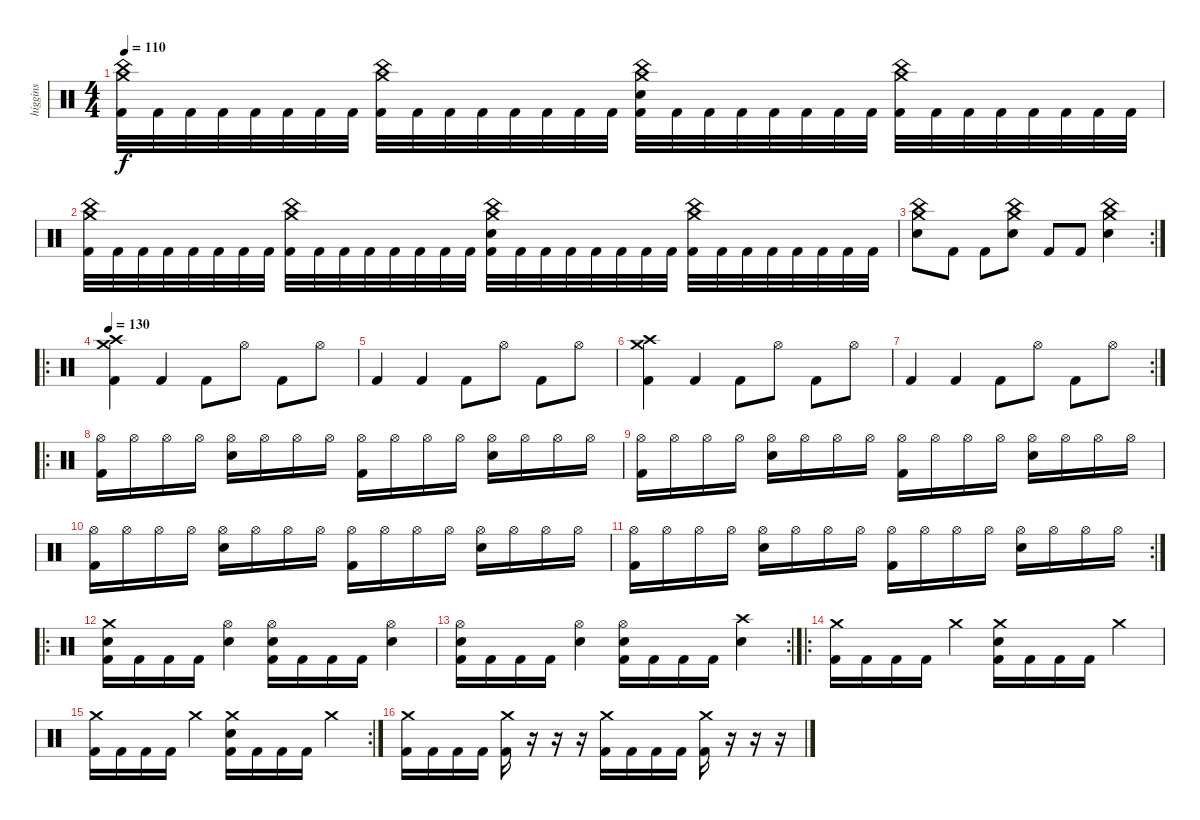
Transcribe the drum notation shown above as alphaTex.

\track ("higgins" "higgins") {instrument percussion}
\staff {score}
\articulation defaults
\ts (4 4)
\tempo 110
\clef neutral
\ks c
("Crash medium (hit)" "China (hit)" "Kick (hit) 2").32{dy f} "Kick (hit) 2".32 "Kick (hit) 2".32 "Kick (hit) 2".32 "Kick (hit) 2".32 "Kick (hit) 2".32 "Kick (hit) 2".32 "Kick (hit) 2".32 ("Crash medium (hit)" "China (hit)" "Kick (hit) 2").32 "Kick (hit) 2".32 "Kick (hit) 2".32 "Kick (hit) 2".32 "Kick (hit) 2".32 "Kick (hit) 2".32 "Kick (hit) 2".32 "Kick (hit) 2".32 ("China (hit)" "Crash medium (hit)" "Snare (hit) 2" "Kick (hit) 2").32 "Kick (hit) 2".32 "Kick (hit) 2".32 "Kick (hit) 2".32 "Kick (hit) 2".32 "Kick (hit) 2".32 "Kick (hit) 2".32 "Kick (hit) 2".32 ("Crash medium (hit)" "China (hit)" "Kick (hit) 2").32 "Kick (hit) 2".32 "Kick (hit) 2".32 "Kick (hit) 2".32 "Kick (hit) 2".32 "Kick (hit) 2".32 "Kick (hit) 2".32 "Kick (hit) 2".32 |
("Crash medium (hit)" "China (hit)" "Kick (hit) 2").32 "Kick (hit) 2".32 "Kick (hit) 2".32 "Kick (hit) 2".32 "Kick (hit) 2".32 "Kick (hit) 2".32 "Kick (hit) 2".32 "Kick (hit) 2".32 ("Crash medium (hit)" "China (hit)" "Kick (hit) 2").32 "Kick (hit) 2".32 "Kick (hit) 2".32 "Kick (hit) 2".32 "Kick (hit) 2".32 "Kick (hit) 2".32 "Kick (hit) 2".32 "Kick (hit) 2".32 ("China (hit)" "Crash medium (hit)" "Snare (hit) 2" "Kick (hit) 2").32 "Kick (hit) 2".32 "Kick (hit) 2".32 "Kick (hit) 2".32 "Kick (hit) 2".32 "Kick (hit) 2".32 "Kick (hit) 2".32 "Kick (hit) 2".32 ("Crash medium (hit)" "China (hit)" "Kick (hit) 2").32 "Kick (hit) 2".32 "Kick (hit) 2".32 "Kick (hit) 2".32 "Kick (hit) 2".32 "Kick (hit) 2".32 "Kick (hit) 2".32 "Kick (hit) 2".32 |
\rc 2
("Crash medium (hit)" "China (hit)" "Snare (hit) 2").8 "Kick (hit) 2".8 "Kick (hit) 2".8 ("Crash medium (hit)" "China (hit)" "Snare (hit) 2").8 "Kick (hit) 2".8 "Kick (hit) 2".8 ("Crash medium (hit)" "China (hit)" "Snare (hit) 2").4 |
\ro
\tempo 130
("Crash high (hit)" "Crash medium (hit)" "Kick (hit) 2").4 "Kick (hit) 2".4 "Kick (hit) 2".8 "Hi-Hat (open)".8 "Kick (hit) 2".8 "Hi-Hat (open)".8 |
"Kick (hit) 2".4 "Kick (hit) 2".4 "Kick (hit) 2".8 "Hi-Hat (open)".8 "Kick (hit) 2".8 "Hi-Hat (open)".8 |
("Crash high (hit)" "Crash medium (hit)" "Kick (hit) 2").4 "Kick (hit) 2".4 "Kick (hit) 2".8 "Hi-Hat (open)".8 "Kick (hit) 2".8 "Hi-Hat (open)".8 |
\rc 2 "Kick (hit) 2".4 "Kick (hit) 2".4 "Kick (hit) 2".8 "Hi-Hat (open)".8 "Kick (hit) 2".8 "Hi-Hat (open)".8
|
\ro
("Hi-Hat (open)" "Kick (hit) 2").16 "Hi-Hat (open)".16 "Hi-Hat (open)".16 "Hi-Hat (open)".16 ("Hi-Hat (open)" "Snare (hit) 2").16 "Hi-Hat (open)".16 "Hi-Hat (open)".16 "Hi-Hat (open)".16 ("Hi-Hat (open)" "Kick (hit) 2").16 "Hi-Hat (open)".16 "Hi-Hat (open)".16 "Hi-Hat (open)".16 ("Hi-Hat (open)" "Snare (hit) 2").16 "Hi-Hat (open)".16 "Hi-Hat (open)".16 "Hi-Hat (open)".16 |
("Hi-Hat (open)" "Kick (hit) 2").16 "Hi-Hat (open)".16 "Hi-Hat (open)".16 "Hi-Hat (open)".16 ("Hi-Hat (open)" "Snare (hit) 2").16 "Hi-Hat (open)".16 "Hi-Hat (open)".16 "Hi-Hat (open)".16 ("Hi-Hat (open)" "Kick (hit) 2").16 "Hi-Hat (open)".16 "Hi-Hat (open)".16 "Hi-Hat (open)".16 ("Hi-Hat (open)" "Snare (hit) 2").16 "Hi-Hat (open)".16 "Hi-Hat (open)".16 "Hi-Hat (open)".16 |
("Hi-Hat (open)" "Kick (hit) 2").16 "Hi-Hat (open)".16 "Hi-Hat (open)".16 "Hi-Hat (open)".16 ("Hi-Hat (open)" "Snare (hit) 2").16 "Hi-Hat (open)".16 "Hi-Hat (open)".16 "Hi-Hat (open)".16 ("Hi-Hat (open)" "Kick (hit) 2").16 "Hi-Hat (open)".16 "Hi-Hat (open)".16 "Hi-Hat (open)".16 ("Hi-Hat (open)" "Snare (hit) 2").16 "Hi-Hat (open)".16 "Hi-Hat (open)".16 "Hi-Hat (open)".16 |
\rc 2
("Hi-Hat (open)" "Kick (hit) 2").16 "Hi-Hat (open)".16 "Hi-Hat (open)".16 "Hi-Hat (open)".16 ("Hi-Hat (open)" "Snare (hit) 2").16 "Hi-Hat (open)".16 "Hi-Hat (open)".16 "Hi-Hat (open)".16 ("Hi-Hat (open)" "Kick (hit) 2").16 "Hi-Hat (open)".16 "Hi-Hat (open)".16 "Hi-Hat (open)".16 ("Hi-Hat (open)" "Snare (hit) 2").16 "Hi-Hat (open)".16 "Hi-Hat (open)".16 "Hi-Hat (open)".16 |
\ro
("Crash medium (hit)" "Snare (hit) 2" "Kick (hit) 2").16 "Kick (hit) 2".16 "Kick (hit) 2".16 "Kick (hit) 2".16 ("Hi-Hat (open)" "Snare (hit) 2").4 ("Hi-Hat (open)" "Snare (hit) 2" "Kick (hit) 2").16 "Kick (hit) 2".16 "Kick (hit) 2".16 "Kick (hit) 2".16 ("Hi-Hat (open)" "Snare (hit) 2").4 |
\rc 2
("Hi-Hat (open)" "Snare (hit) 2" "Kick (hit) 2").16 "Kick (hit) 2".16 "Kick (hit) 2".16 "Kick (hit) 2".16 ("Hi-Hat (open)" "Snare (hit) 2").4 ("Hi-Hat (open)" "Snare (hit) 2" "Kick (hit) 2").16 "Kick (hit) 2".16 "Kick (hit) 2".16 "Kick (hit) 2".16 ("Crash high (hit)" "Snare (hit) 2").4 |
\ro
("Crash medium (hit)" "Kick (hit) 2").16 "Kick (hit) 2".16 "Kick (hit) 2".16 "Kick (hit) 2".16 "Crash medium (hit)".4 ("Crash medium (hit)" "Snare (hit) 2" "Kick (hit) 2").16 "Kick (hit) 2".16 "Kick (hit) 2".16 "Kick (hit) 2".16 "Crash medium (hit)".4 |
\rc 2
("Crash medium (hit)" "Kick (hit) 2").16 "Kick (hit) 2".16 "Kick (hit) 2".16 "Kick (hit) 2".16 "Crash medium (hit)".4 ("Crash medium (hit)" "Snare (hit) 2" "Kick (hit) 2").16 "Kick (hit) 2".16 "Kick (hit) 2".16 "Kick (hit) 2".16 "Crash medium (hit)".4 |
("Crash medium (hit)" "Kick (hit) 2").16 "Kick (hit) 2".16 "Kick (hit) 2".16 "Kick (hit) 2".16 ("Crash medium (hit)" "Kick (hit) 2").16 r.16 r.16 r.16 ("Crash medium (hit)" "Kick (hit) 2").16 "Kick (hit) 2".16 "Kick (hit) 2".16 "Kick (hit) 2".16 ("Crash medium (hit)" "Kick (hit) 2").16 r.16 r.16 r.16
